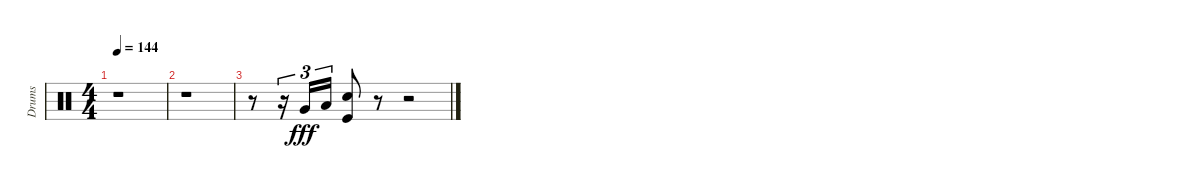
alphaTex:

\track ("Drums" "Drums") {instrument percussion}
\staff {score}
\articulation defaults
\ts (4 4)
\tempo 144
\clef neutral
\ks c
r.1{dy fff} |
r.1 |
r.8 r.16{tu (3 2)} "Very Low Tom (hit)".16{tu (3 2)} "Low Floor Tom (hit)".16{tu (3 2)} ("Snare (hit) 2" "Kick (hit)").8 r.8 r.2
